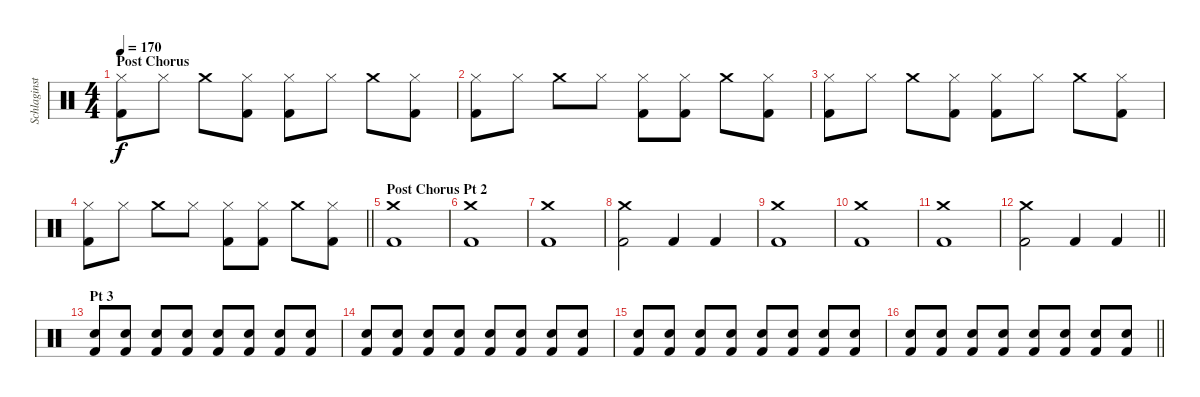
\track ("Schlaginstrumente - Auswahl" "Schlaginst") {instrument percussion}
\staff {score}
\articulation defaults
\ts (4 4)
\section ("" "Post Chorus")
\tempo 170
\clef neutral
\ks c
("Hi-Hat (closed)" "Kick (hit) 2").8{dy f} "Hi-Hat (closed)".8 "Crash medium (hit)".8 ("Hi-Hat (closed)" "Kick (hit) 2").8 ("Hi-Hat (closed)" "Kick (hit) 2").8 "Hi-Hat (closed)".8 "Crash medium (hit)".8 ("Hi-Hat (closed)" "Kick (hit) 2").8 |
("Hi-Hat (closed)" "Kick (hit) 2").8 "Hi-Hat (closed)".8 "Crash medium (hit)".8 "Hi-Hat (closed)".8 ("Hi-Hat (closed)" "Kick (hit) 2").8 ("Hi-Hat (closed)" "Kick (hit) 2").8 "Crash medium (hit)".8 ("Hi-Hat (closed)" "Kick (hit) 2").8 |
("Hi-Hat (closed)" "Kick (hit) 2").8 "Hi-Hat (closed)".8 "Crash medium (hit)".8 ("Hi-Hat (closed)" "Kick (hit) 2").8 ("Hi-Hat (closed)" "Kick (hit) 2").8 "Hi-Hat (closed)".8 "Crash medium (hit)".8 ("Hi-Hat (closed)" "Kick (hit) 2").8 |
\barLineRight lightlight
("Hi-Hat (closed)" "Kick (hit) 2").8 "Hi-Hat (closed)".8 "Crash medium (hit)".8 "Hi-Hat (closed)".8 ("Hi-Hat (closed)" "Kick (hit) 2").8 ("Hi-Hat (closed)" "Kick (hit) 2").8 "Crash medium (hit)".8 ("Hi-Hat (closed)" "Kick (hit) 2").8 |
\section ("" "Post Chorus Pt 2")
("Crash medium (hit)" "Kick (hit) 2").1 |
("Crash medium (hit)" "Kick (hit) 2").1 |
("Crash medium (hit)" "Kick (hit) 2").1 |
("Crash medium (hit)" "Kick (hit) 2").2 "Kick (hit) 2".4 "Kick (hit) 2".4 |
("Crash medium (hit)" "Kick (hit) 2").1 |
("Crash medium (hit)" "Kick (hit) 2").1 |
("Crash medium (hit)" "Kick (hit) 2").1 |
\barLineRight lightlight
("Crash medium (hit)" "Kick (hit) 2").2 "Kick (hit) 2".4 "Kick (hit) 2".4 |
\section ("" "Pt 3")
("Snare (hit) 2" "Kick (hit) 2").8 ("Snare (hit) 2" "Kick (hit) 2").8 ("Snare (hit) 2" "Kick (hit) 2").8 ("Snare (hit) 2" "Kick (hit) 2").8 ("Snare (hit) 2" "Kick (hit) 2").8 ("Snare (hit) 2" "Kick (hit) 2").8 ("Snare (hit) 2" "Kick (hit) 2").8 ("Snare (hit) 2" "Kick (hit) 2").8 |
("Snare (hit) 2" "Kick (hit) 2").8 ("Snare (hit) 2" "Kick (hit) 2").8 ("Snare (hit) 2" "Kick (hit) 2").8 ("Snare (hit) 2" "Kick (hit) 2").8 ("Snare (hit) 2" "Kick (hit) 2").8 ("Snare (hit) 2" "Kick (hit) 2").8 ("Snare (hit) 2" "Kick (hit) 2").8 ("Snare (hit) 2" "Kick (hit) 2").8 |
("Snare (hit) 2" "Kick (hit) 2").8 ("Snare (hit) 2" "Kick (hit) 2").8 ("Snare (hit) 2" "Kick (hit) 2").8 ("Snare (hit) 2" "Kick (hit) 2").8 ("Snare (hit) 2" "Kick (hit) 2").8 ("Snare (hit) 2" "Kick (hit) 2").8 ("Snare (hit) 2" "Kick (hit) 2").8 ("Snare (hit) 2" "Kick (hit) 2").8 |
\barLineRight lightlight
("Snare (hit) 2" "Kick (hit) 2").8 ("Snare (hit) 2" "Kick (hit) 2").8 ("Snare (hit) 2" "Kick (hit) 2").8 ("Snare (hit) 2" "Kick (hit) 2").8 ("Snare (hit) 2" "Kick (hit) 2").8 ("Snare (hit) 2" "Kick (hit) 2").8 ("Snare (hit) 2" "Kick (hit) 2").8 ("Snare (hit) 2" "Kick (hit) 2").8
